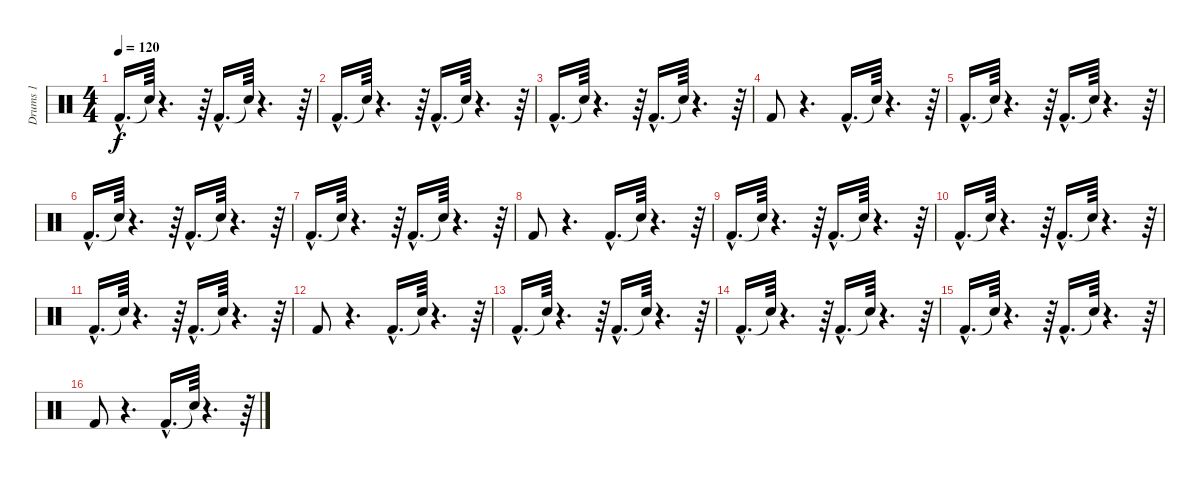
\track ("Drums 1" "Drums 1") {instrument percussion}
\staff {score}
\articulation defaults
\ts (4 4)
\tempo 120
\clef neutral
\ks c "Kick (hit) 2"{hac}.16{d dy f} "Snare (hit)"{t}.64
r.4{d} r.64 "Kick (hit) 2"{hac}.16{d} "Snare (hit)"{t}.64 r.4{d} r.64 |
"Kick (hit) 2"{hac}.16{d} "Snare (hit)"{t}.64 r.4{d} r.64 "Kick (hit) 2"{hac}.16{d} "Snare (hit)"{t}.64 r.4{d} r.64 |
"Kick (hit) 2"{hac}.16{d} "Snare (hit)"{t}.64 r.4{d} r.64 "Kick (hit) 2"{hac}.16{d} "Snare (hit)"{t}.64 r.4{d} r.64 |
"Kick (hit) 2".8 r.4{d} "Kick (hit) 2"{hac}.16{d} "Snare (hit)"{t}.64 r.4{d} r.64 |
"Kick (hit) 2"{hac}.16{d} "Snare (hit)"{t}.64 r.4{d} r.64 "Kick (hit) 2"{hac}.16{d} "Snare (hit)"{t}.64 r.4{d} r.64 |
"Kick (hit) 2"{hac}.16{d} "Snare (hit)"{t}.64 r.4{d} r.64 "Kick (hit) 2"{hac}.16{d} "Snare (hit)"{t}.64 r.4{d} r.64 |
"Kick (hit) 2"{hac}.16{d} "Snare (hit)"{t}.64 r.4{d} r.64 "Kick (hit) 2"{hac}.16{d} "Snare (hit)"{t}.64 r.4{d} r.64 |
"Kick (hit) 2".8 r.4{d} "Kick (hit) 2"{hac}.16{d} "Snare (hit)"{t}.64 r.4{d} r.64 |
"Kick (hit) 2"{hac}.16{d} "Snare (hit)"{t}.64 r.4{d} r.64 "Kick (hit) 2"{hac}.16{d} "Snare (hit)"{t}.64 r.4{d} r.64 |
"Kick (hit) 2"{hac}.16{d} "Snare (hit)"{t}.64 r.4{d} r.64 "Kick (hit) 2"{hac}.16{d} "Snare (hit)"{t}.64 r.4{d} r.64 |
"Kick (hit) 2"{hac}.16{d} "Snare (hit)"{t}.64 r.4{d} r.64 "Kick (hit) 2"{hac}.16{d} "Snare (hit)"{t}.64 r.4{d} r.64 |
"Kick (hit) 2".8 r.4{d} "Kick (hit) 2"{hac}.16{d} "Snare (hit)"{t}.64 r.4{d} r.64 |
"Kick (hit) 2"{hac}.16{d} "Snare (hit)"{t}.64 r.4{d} r.64 "Kick (hit) 2"{hac}.16{d} "Snare (hit)"{t}.64 r.4{d} r.64 |
"Kick (hit) 2"{hac}.16{d} "Snare (hit)"{t}.64 r.4{d} r.64 "Kick (hit) 2"{hac}.16{d} "Snare (hit)"{t}.64 r.4{d} r.64 |
"Kick (hit) 2"{hac}.16{d} "Snare (hit)"{t}.64 r.4{d} r.64 "Kick (hit) 2"{hac}.16{d} "Snare (hit)"{t}.64 r.4{d} r.64 |
"Kick (hit) 2".8 r.4{d} "Kick (hit) 2"{hac}.16{d} "Snare (hit)"{t}.64 r.4{d} r.64
